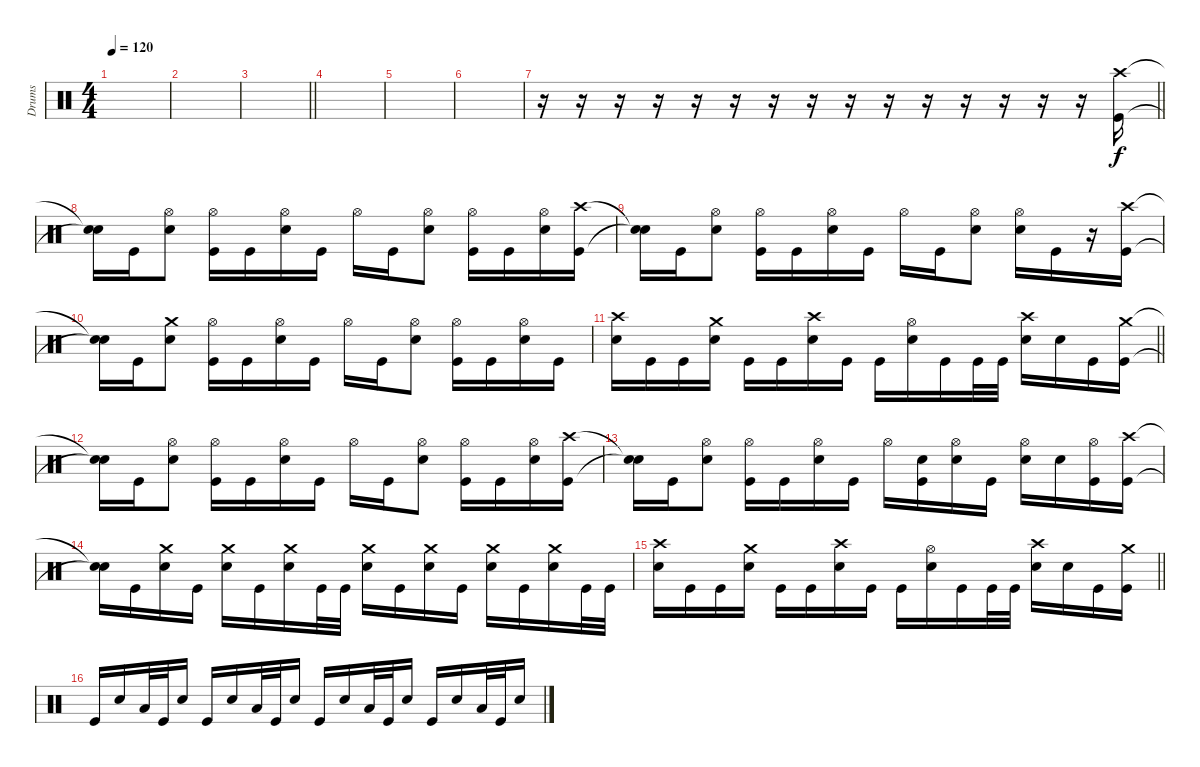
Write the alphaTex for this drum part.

\track ("Drums" "Drums") {instrument percussion}
\staff
\articulation defaults
\ts (4 4)
\tempo 120
\clef neutral
\ks c
|
|
\barLineRight lightlight
|
|
|
|
\barLineRight lightlight
r.16 r.16 r.16 r.16 r.16 r.16 r.16 r.16 r.16 r.16 r.16 r.16 r.16 r.16 r.16 ("Crash high (hit)" "Kick (hit)").16 |
\section ("" "")
("Snare (hit)"{t} "Snare (hit)"{t}).16 "Kick (hit)".16 ("Hi-Hat (open)" "Electric Snare (hit)").8 ("Hi-Hat (open)" "Kick (hit)").16 "Kick (hit)".16 ("Hi-Hat (open)" "Electric Snare (hit)").16 "Kick (hit)".16 "Hi-Hat (open)".16 "Kick (hit)".16 ("Hi-Hat (open)" "Electric Snare (hit)").8 ("Hi-Hat (open)" "Kick (hit)").16 "Kick (hit)".16 ("Hi-Hat (open)" "Electric Snare (hit)").16 ("Crash high (hit)" "Kick (hit)").16 |
("Snare (hit)"{t} "Snare (hit)"{t}).16 "Kick (hit)".16 ("Hi-Hat (open)" "Electric Snare (hit)").8 ("Hi-Hat (open)" "Kick (hit)").16 "Kick (hit)".16 ("Hi-Hat (open)" "Electric Snare (hit)").16 "Kick (hit)".16 "Hi-Hat (open)".16 "Kick (hit)".16 ("Hi-Hat (open)" "Electric Snare (hit)").8 ("Hi-Hat (open)" "Electric Snare (hit)").16 "Kick (hit)".16 r.16 ("Crash high (hit)" "Kick (hit)").16 |
("Snare (hit)"{t} "Snare (hit)"{t}).16 "Kick (hit)".16 ("Crash medium (hit)" "Electric Snare (hit)").8 ("Hi-Hat (open)" "Kick (hit)").16 "Kick (hit)".16 ("Hi-Hat (open)" "Electric Snare (hit)").16 "Kick (hit)".16 "Hi-Hat (open)".16 "Kick (hit)".16 ("Hi-Hat (open)" "Electric Snare (hit)").8 ("Hi-Hat (open)" "Kick (hit)").16 "Kick (hit)".16 ("Hi-Hat (open)" "Electric Snare (hit)").16 "Kick (hit)".16 |
\barLineRight lightlight
("Crash high (hit)" "Electric Snare (hit)").16 "Kick (hit)".16 "Kick (hit)".16 ("Crash medium (hit)" "Electric Snare (hit)").16 "Kick (hit)".16 "Kick (hit)".16 ("Crash high (hit)" "Electric Snare (hit)").16 "Kick (hit)".16 "Kick (hit)".16 ("Hi-Hat (open)" "Electric Snare (hit)").16 "Kick (hit)".16 "Kick (hit)".32 "Kick (hit)".32 ("Crash high (hit)" "Electric Snare (hit)").16 "Electric Snare (hit)".16 "Kick (hit)".16 ("Crash medium (hit)" "Kick (hit)").16 |
("Snare (hit)"{t} "Snare (hit)"{t}).16 "Kick (hit)".16 ("Hi-Hat (open)" "Electric Snare (hit)").8 ("Hi-Hat (open)" "Kick (hit)").16 "Kick (hit)".16 ("Hi-Hat (open)" "Electric Snare (hit)").16 "Kick (hit)".16 "Hi-Hat (open)".16 "Kick (hit)".16 ("Hi-Hat (open)" "Electric Snare (hit)").8 ("Hi-Hat (open)" "Kick (hit)").16 "Kick (hit)".16 ("Hi-Hat (open)" "Electric Snare (hit)").16 ("Crash high (hit)" "Kick (hit)").16 |
("Snare (hit)"{t} "Snare (hit)"{t}).16 "Kick (hit)".16 ("Hi-Hat (open)" "Electric Snare (hit)").8 ("Hi-Hat (open)" "Kick (hit)").16 "Kick (hit)".16 ("Hi-Hat (open)" "Electric Snare (hit)").16 "Kick (hit)".16 "Hi-Hat (open)".16 ("Electric Snare (hit)" "Kick (hit)").16 ("Hi-Hat (open)" "Electric Snare (hit)").16 "Kick (hit)".16 ("Hi-Hat (open)" "Electric Snare (hit)").16 "Electric Snare (hit)".16 ("Hi-Hat (open)" "Kick (hit)").16 ("Crash high (hit)" "Kick (hit)").16 |
("Snare (hit)"{t} "Snare (hit)"{t}).16 "Kick (hit)".16 ("Crash medium (hit)" "Electric Snare (hit)").16 "Kick (hit)".16 ("Crash medium (hit)" "Electric Snare (hit)").16 "Kick (hit)".16 ("Crash medium (hit)" "Electric Snare (hit)").16 "Kick (hit)".32 "Kick (hit)".32 ("Crash medium (hit)" "Electric Snare (hit)").16 "Kick (hit)".16 ("Crash medium (hit)" "Electric Snare (hit)").16 "Kick (hit)".16 ("Crash medium (hit)" "Electric Snare (hit)").16 "Kick (hit)".16 ("Crash medium (hit)" "Electric Snare (hit)").16 "Kick (hit)".32 "Kick (hit)".32 |
\barLineRight lightlight
("Crash high (hit)" "Electric Snare (hit)").16 "Kick (hit)".16 "Kick (hit)".16 ("Crash medium (hit)" "Electric Snare (hit)").16 "Kick (hit)".16 "Kick (hit)".16 ("Crash high (hit)" "Electric Snare (hit)").16 "Kick (hit)".16 "Kick (hit)".16 ("Hi-Hat (open)" "Electric Snare (hit)").16 "Kick (hit)".16 "Kick (hit)".32 "Kick (hit)".32 ("Crash high (hit)" "Electric Snare (hit)").16 "Electric Snare (hit)".16 "Kick (hit)".16 ("Crash medium (hit)" "Kick (hit)").16 |
\section ("" "")
"Kick (hit)".16 "Electric Snare (hit)".16 "Low Floor Tom (hit)".32 "Kick (hit)".32 "Electric Snare (hit)".16 "Kick (hit)".16 "Electric Snare (hit)".16 "Low Floor Tom (hit)".32 "Kick (hit)".32 "Electric Snare (hit)".16 "Kick (hit)".16 "Electric Snare (hit)".16 "Low Floor Tom (hit)".32 "Kick (hit)".32 "Electric Snare (hit)".16 "Kick (hit)".16 "Electric Snare (hit)".16 "Low Floor Tom (hit)".32 "Kick (hit)".32 "Electric Snare (hit)".16
